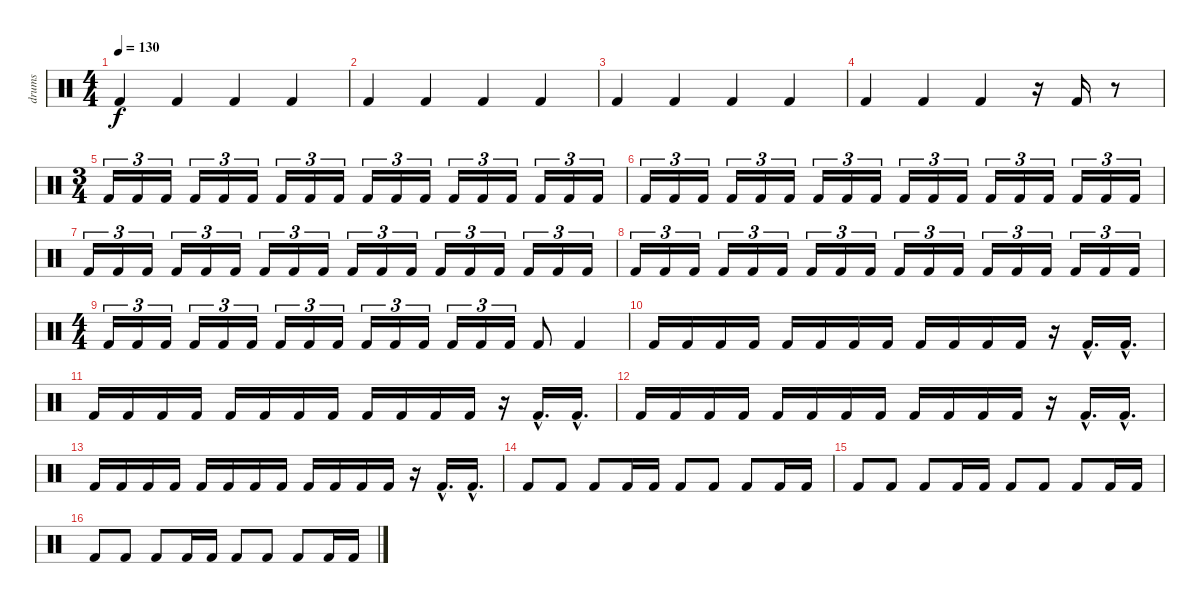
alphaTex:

\track ("drums" "drums") {instrument percussion}
\staff {score}
\articulation defaults
\ts (4 4)
\tempo 130
\clef neutral
\ks c "Kick (hit) 2".4{dy f} "Kick (hit) 2".4 "Kick (hit) 2".4 "Kick (hit) 2".4
|
"Kick (hit) 2".4 "Kick (hit) 2".4 "Kick (hit) 2".4 "Kick (hit) 2".4 |
"Kick (hit) 2".4 "Kick (hit) 2".4 "Kick (hit) 2".4 "Kick (hit) 2".4 |
"Kick (hit) 2".4 "Kick (hit) 2".4 "Kick (hit) 2".4 r.16 "Kick (hit) 2".16 r.8 |
\ts (3 4)
"Kick (hit) 2".16{tu (3 2)} "Kick (hit) 2".16{tu (3 2)} "Kick (hit) 2".16{tu (3 2)} "Kick (hit) 2".16{tu (3 2)} "Kick (hit) 2".16{tu (3 2)} "Kick (hit) 2".16{tu (3 2)} "Kick (hit) 2".16{tu (3 2)} "Kick (hit) 2".16{tu (3 2)} "Kick (hit) 2".16{tu (3 2)} "Kick (hit) 2".16{tu (3 2)} "Kick (hit) 2".16{tu (3 2)} "Kick (hit) 2".16{tu (3 2)} "Kick (hit) 2".16{tu (3 2)} "Kick (hit) 2".16{tu (3 2)} "Kick (hit) 2".16{tu (3 2)} "Kick (hit) 2".16{tu (3 2)} "Kick (hit) 2".16{tu (3 2)} "Kick (hit) 2".16{tu (3 2)} |
"Kick (hit) 2".16{tu (3 2)} "Kick (hit) 2".16{tu (3 2)} "Kick (hit) 2".16{tu (3 2)} "Kick (hit) 2".16{tu (3 2)} "Kick (hit) 2".16{tu (3 2)} "Kick (hit) 2".16{tu (3 2)} "Kick (hit) 2".16{tu (3 2)} "Kick (hit) 2".16{tu (3 2)} "Kick (hit) 2".16{tu (3 2)} "Kick (hit) 2".16{tu (3 2)} "Kick (hit) 2".16{tu (3 2)} "Kick (hit) 2".16{tu (3 2)} "Kick (hit) 2".16{tu (3 2)} "Kick (hit) 2".16{tu (3 2)} "Kick (hit) 2".16{tu (3 2)} "Kick (hit) 2".16{tu (3 2)} "Kick (hit) 2".16{tu (3 2)} "Kick (hit) 2".16{tu (3 2)} |
"Kick (hit) 2".16{tu (3 2)} "Kick (hit) 2".16{tu (3 2)} "Kick (hit) 2".16{tu (3 2)} "Kick (hit) 2".16{tu (3 2)} "Kick (hit) 2".16{tu (3 2)} "Kick (hit) 2".16{tu (3 2)} "Kick (hit) 2".16{tu (3 2)} "Kick (hit) 2".16{tu (3 2)} "Kick (hit) 2".16{tu (3 2)} "Kick (hit) 2".16{tu (3 2)} "Kick (hit) 2".16{tu (3 2)} "Kick (hit) 2".16{tu (3 2)} "Kick (hit) 2".16{tu (3 2)} "Kick (hit) 2".16{tu (3 2)} "Kick (hit) 2".16{tu (3 2)} "Kick (hit) 2".16{tu (3 2)} "Kick (hit) 2".16{tu (3 2)} "Kick (hit) 2".16{tu (3 2)} |
"Kick (hit) 2".16{tu (3 2)} "Kick (hit) 2".16{tu (3 2)} "Kick (hit) 2".16{tu (3 2)} "Kick (hit) 2".16{tu (3 2)} "Kick (hit) 2".16{tu (3 2)} "Kick (hit) 2".16{tu (3 2)} "Kick (hit) 2".16{tu (3 2)} "Kick (hit) 2".16{tu (3 2)} "Kick (hit) 2".16{tu (3 2)} "Kick (hit) 2".16{tu (3 2)} "Kick (hit) 2".16{tu (3 2)} "Kick (hit) 2".16{tu (3 2)} "Kick (hit) 2".16{tu (3 2)} "Kick (hit) 2".16{tu (3 2)} "Kick (hit) 2".16{tu (3 2)} "Kick (hit) 2".16{tu (3 2)} "Kick (hit) 2".16{tu (3 2)} "Kick (hit) 2".16{tu (3 2)} |
\ts (4 4)
"Kick (hit) 2".16{tu (3 2)} "Kick (hit) 2".16{tu (3 2)} "Kick (hit) 2".16{tu (3 2)} "Kick (hit) 2".16{tu (3 2)} "Kick (hit) 2".16{tu (3 2)} "Kick (hit) 2".16{tu (3 2)} "Kick (hit) 2".16{tu (3 2)} "Kick (hit) 2".16{tu (3 2)} "Kick (hit) 2".16{tu (3 2)} "Kick (hit) 2".16{tu (3 2)} "Kick (hit) 2".16{tu (3 2)} "Kick (hit) 2".16{tu (3 2)} "Kick (hit) 2".16{tu (3 2)} "Kick (hit) 2".16{tu (3 2)} "Kick (hit) 2".16{tu (3 2)} "Kick (hit) 2".8 "Kick (hit) 2".4 |
"Kick (hit) 2".16 "Kick (hit) 2".16 "Kick (hit) 2".16 "Kick (hit) 2".16 "Kick (hit) 2".16 "Kick (hit) 2".16 "Kick (hit) 2".16 "Kick (hit) 2".16 "Kick (hit) 2".16 "Kick (hit) 2".16 "Kick (hit) 2".16 "Kick (hit) 2".16 r.16 "Kick (hit) 2"{hac}.16{d} "Kick (hit) 2"{hac}.16{d} |
"Kick (hit) 2".16 "Kick (hit) 2".16 "Kick (hit) 2".16 "Kick (hit) 2".16 "Kick (hit) 2".16 "Kick (hit) 2".16 "Kick (hit) 2".16 "Kick (hit) 2".16 "Kick (hit) 2".16 "Kick (hit) 2".16 "Kick (hit) 2".16 "Kick (hit) 2".16 r.16 "Kick (hit) 2"{hac}.16{d} "Kick (hit) 2"{hac}.16{d} |
"Kick (hit) 2".16 "Kick (hit) 2".16 "Kick (hit) 2".16 "Kick (hit) 2".16 "Kick (hit) 2".16 "Kick (hit) 2".16 "Kick (hit) 2".16 "Kick (hit) 2".16 "Kick (hit) 2".16 "Kick (hit) 2".16 "Kick (hit) 2".16 "Kick (hit) 2".16 r.16 "Kick (hit) 2"{hac}.16{d} "Kick (hit) 2"{hac}.16{d} |
"Kick (hit) 2".16 "Kick (hit) 2".16 "Kick (hit) 2".16 "Kick (hit) 2".16 "Kick (hit) 2".16 "Kick (hit) 2".16 "Kick (hit) 2".16 "Kick (hit) 2".16 "Kick (hit) 2".16 "Kick (hit) 2".16 "Kick (hit) 2".16 "Kick (hit) 2".16 r.16 "Kick (hit) 2"{hac}.16{d} "Kick (hit) 2"{hac}.16{d} |
"Kick (hit) 2".8 "Kick (hit) 2".8 "Kick (hit) 2".8 "Kick (hit) 2".16 "Kick (hit) 2".16 "Kick (hit) 2".8 "Kick (hit) 2".8 "Kick (hit) 2".8 "Kick (hit) 2".16 "Kick (hit) 2".16 |
"Kick (hit) 2".8 "Kick (hit) 2".8 "Kick (hit) 2".8 "Kick (hit) 2".16 "Kick (hit) 2".16 "Kick (hit) 2".8 "Kick (hit) 2".8 "Kick (hit) 2".8 "Kick (hit) 2".16 "Kick (hit) 2".16 |
"Kick (hit) 2".8 "Kick (hit) 2".8 "Kick (hit) 2".8 "Kick (hit) 2".16 "Kick (hit) 2".16 "Kick (hit) 2".8 "Kick (hit) 2".8 "Kick (hit) 2".8 "Kick (hit) 2".16 "Kick (hit) 2".16
